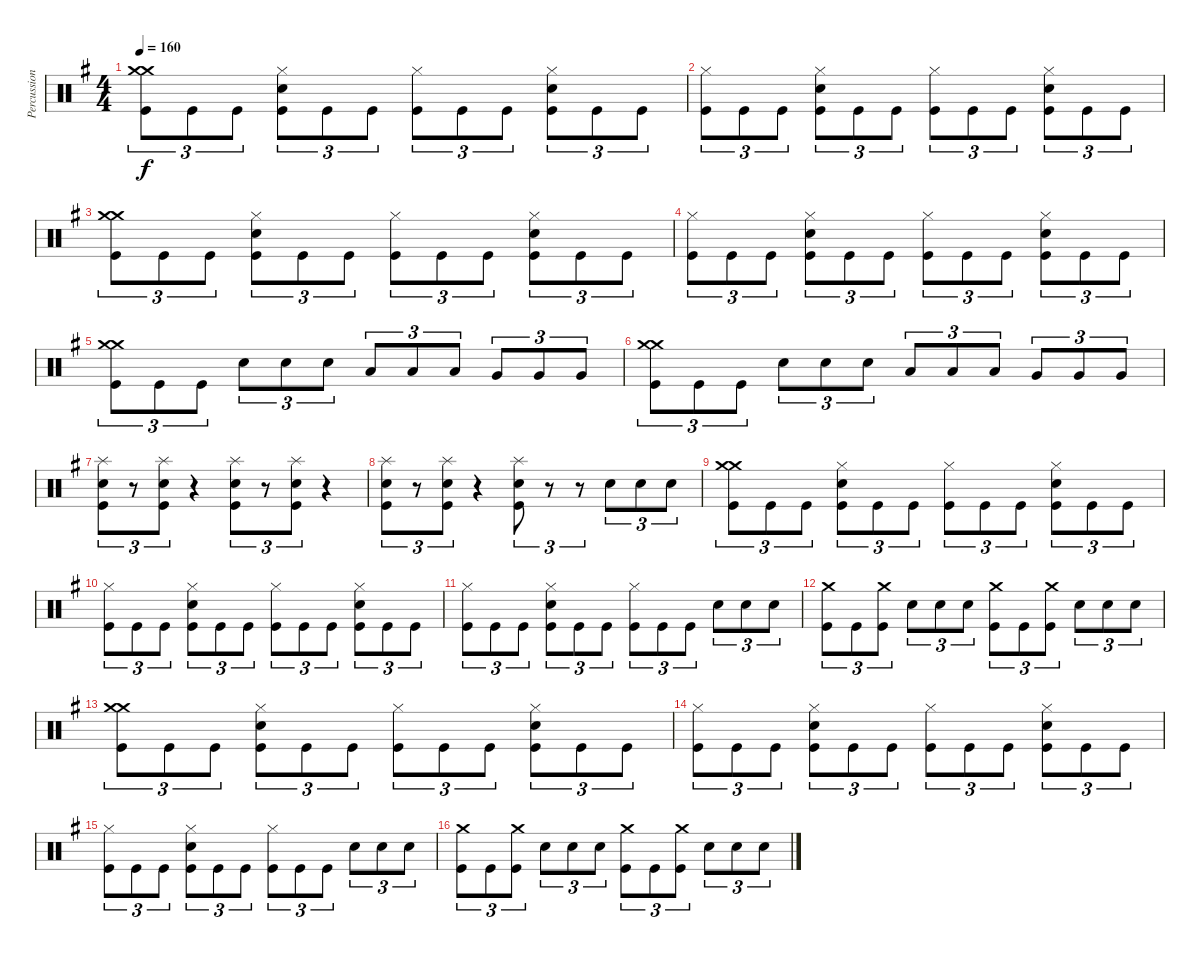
\track ("Percussions" "Percussion") {instrument percussion}
\staff {score}
\articulation defaults
\ts (4 4)
\tempo 160
\clef neutral
\ks g
("Kick (hit)" "Crash medium (hit)" "Crash medium (hit)").8{tu (3 2) dy f} "Kick (hit)".8{tu (3 2)} "Kick (hit)".8{tu (3 2)} ("Kick (hit)" "Electric Snare (hit)" "Hi-Hat (closed)").8{tu (3 2)} "Kick (hit)".8{tu (3 2)} "Kick (hit)".8{tu (3 2)} ("Kick (hit)" "Hi-Hat (closed)").8{tu (3 2)} "Kick (hit)".8{tu (3 2)} "Kick (hit)".8{tu (3 2)} ("Kick (hit)" "Electric Snare (hit)" "Hi-Hat (closed)").8{tu (3 2)} "Kick (hit)".8{tu (3 2)} "Kick (hit)".8{tu (3 2)} |
("Kick (hit)" "Hi-Hat (closed)").8{tu (3 2)} "Kick (hit)".8{tu (3 2)} "Kick (hit)".8{tu (3 2)} ("Kick (hit)" "Electric Snare (hit)" "Hi-Hat (closed)").8{tu (3 2)} "Kick (hit)".8{tu (3 2)} "Kick (hit)".8{tu (3 2)} ("Kick (hit)" "Hi-Hat (closed)").8{tu (3 2)} "Kick (hit)".8{tu (3 2)} "Kick (hit)".8{tu (3 2)} ("Kick (hit)" "Electric Snare (hit)" "Hi-Hat (closed)").8{tu (3 2)} "Kick (hit)".8{tu (3 2)} "Kick (hit)".8{tu (3 2)} |
("Kick (hit)" "Crash medium (hit)" "Crash medium (hit)").8{tu (3 2)} "Kick (hit)".8{tu (3 2)} "Kick (hit)".8{tu (3 2)} ("Kick (hit)" "Electric Snare (hit)" "Hi-Hat (closed)").8{tu (3 2)} "Kick (hit)".8{tu (3 2)} "Kick (hit)".8{tu (3 2)} ("Kick (hit)" "Hi-Hat (closed)").8{tu (3 2)} "Kick (hit)".8{tu (3 2)} "Kick (hit)".8{tu (3 2)} ("Kick (hit)" "Electric Snare (hit)" "Hi-Hat (closed)").8{tu (3 2)} "Kick (hit)".8{tu (3 2)} "Kick (hit)".8{tu (3 2)} |
("Kick (hit)" "Hi-Hat (closed)").8{tu (3 2)} "Kick (hit)".8{tu (3 2)} "Kick (hit)".8{tu (3 2)} ("Kick (hit)" "Electric Snare (hit)" "Hi-Hat (closed)").8{tu (3 2)} "Kick (hit)".8{tu (3 2)} "Kick (hit)".8{tu (3 2)} ("Kick (hit)" "Hi-Hat (closed)").8{tu (3 2)} "Kick (hit)".8{tu (3 2)} "Kick (hit)".8{tu (3 2)} ("Kick (hit)" "Electric Snare (hit)" "Hi-Hat (closed)").8{tu (3 2)} "Kick (hit)".8{tu (3 2)} "Kick (hit)".8{tu (3 2)} |
("Kick (hit)" "Crash medium (hit)" "Crash medium (hit)").8{tu (3 2)} "Kick (hit)".8{tu (3 2)} "Kick (hit)".8{tu (3 2)} "Electric Snare (hit)".8{tu (3 2)} "Electric Snare (hit)".8{tu (3 2)} "Electric Snare (hit)".8{tu (3 2)} "Low Tom (hit)".8{tu (3 2)} "Low Tom (hit)".8{tu (3 2)} "Low Tom (hit)".8{tu (3 2)} "Very Low Tom (hit)".8{tu (3 2)} "Very Low Tom (hit)".8{tu (3 2)} "Very Low Tom (hit)".8{tu (3 2)} |
("Kick (hit)" "Crash medium (hit)" "Crash medium (hit)").8{tu (3 2)} "Kick (hit)".8{tu (3 2)} "Kick (hit)".8{tu (3 2)} "Electric Snare (hit)".8{tu (3 2)} "Electric Snare (hit)".8{tu (3 2)} "Electric Snare (hit)".8{tu (3 2)} "Low Tom (hit)".8{tu (3 2)} "Low Tom (hit)".8{tu (3 2)} "Low Tom (hit)".8{tu (3 2)} "Very Low Tom (hit)".8{tu (3 2)} "Very Low Tom (hit)".8{tu (3 2)} "Very Low Tom (hit)".8{tu (3 2)} |
("Kick (hit)" "Electric Snare (hit)" "Splash (hit)").8{tu (3 2)} r.8{tu (3 2)} ("Kick (hit)" "Electric Snare (hit)" "Splash (hit)").8{tu (3 2)} r.4 ("Kick (hit)" "Electric Snare (hit)" "Splash (hit)").8{tu (3 2)} r.8{tu (3 2)} ("Kick (hit)" "Electric Snare (hit)" "Splash (hit)").8{tu (3 2)} r.4 |
("Kick (hit)" "Electric Snare (hit)" "Splash (hit)").8{tu (3 2)} r.8{tu (3 2)} ("Kick (hit)" "Electric Snare (hit)" "Splash (hit)").8{tu (3 2)} r.4 ("Kick (hit)" "Electric Snare (hit)" "Splash (hit)").8{tu (3 2)} r.8{tu (3 2)} r.8{tu (3 2)} "Electric Snare (hit)".8{tu (3 2)} "Electric Snare (hit)".8{tu (3 2)} "Electric Snare (hit)".8{tu (3 2)} |
("Kick (hit)" "Crash medium (hit)" "Crash medium (hit)").8{tu (3 2)} "Kick (hit)".8{tu (3 2)} "Kick (hit)".8{tu (3 2)} ("Kick (hit)" "Electric Snare (hit)" "Hi-Hat (closed)").8{tu (3 2)} "Kick (hit)".8{tu (3 2)} "Kick (hit)".8{tu (3 2)} ("Kick (hit)" "Hi-Hat (closed)").8{tu (3 2)} "Kick (hit)".8{tu (3 2)} "Kick (hit)".8{tu (3 2)} ("Kick (hit)" "Electric Snare (hit)" "Hi-Hat (closed)").8{tu (3 2)} "Kick (hit)".8{tu (3 2)} "Kick (hit)".8{tu (3 2)} |
("Kick (hit)" "Hi-Hat (closed)").8{tu (3 2)} "Kick (hit)".8{tu (3 2)} "Kick (hit)".8{tu (3 2)} ("Kick (hit)" "Electric Snare (hit)" "Hi-Hat (closed)").8{tu (3 2)} "Kick (hit)".8{tu (3 2)} "Kick (hit)".8{tu (3 2)} ("Kick (hit)" "Hi-Hat (closed)").8{tu (3 2)} "Kick (hit)".8{tu (3 2)} "Kick (hit)".8{tu (3 2)} ("Kick (hit)" "Electric Snare (hit)" "Hi-Hat (closed)").8{tu (3 2)} "Kick (hit)".8{tu (3 2)} "Kick (hit)".8{tu (3 2)} |
("Kick (hit)" "Hi-Hat (closed)").8{tu (3 2)} "Kick (hit)".8{tu (3 2)} "Kick (hit)".8{tu (3 2)} ("Kick (hit)" "Electric Snare (hit)" "Hi-Hat (closed)").8{tu (3 2)} "Kick (hit)".8{tu (3 2)} "Kick (hit)".8{tu (3 2)} ("Kick (hit)" "Hi-Hat (closed)").8{tu (3 2)} "Kick (hit)".8{tu (3 2)} "Kick (hit)".8{tu (3 2)} "Electric Snare (hit)".8{tu (3 2)} "Electric Snare (hit)".8{tu (3 2)} "Electric Snare (hit)".8{tu (3 2)} |
("Kick (hit)" "Crash medium (hit)").8{tu (3 2)} "Kick (hit)".8{tu (3 2)} ("Kick (hit)" "Crash medium (hit)").8{tu (3 2)} "Electric Snare (hit)".8{tu (3 2)} "Electric Snare (hit)".8{tu (3 2)} "Electric Snare (hit)".8{tu (3 2)} ("Kick (hit)" "Crash medium (hit)").8{tu (3 2)} "Kick (hit)".8{tu (3 2)} ("Kick (hit)" "Crash medium (hit)").8{tu (3 2)} "Electric Snare (hit)".8{tu (3 2)} "Electric Snare (hit)".8{tu (3 2)} "Electric Snare (hit)".8{tu (3 2)} |
("Kick (hit)" "Crash medium (hit)" "Crash medium (hit)").8{tu (3 2)} "Kick (hit)".8{tu (3 2)} "Kick (hit)".8{tu (3 2)} ("Kick (hit)" "Electric Snare (hit)" "Hi-Hat (closed)").8{tu (3 2)} "Kick (hit)".8{tu (3 2)} "Kick (hit)".8{tu (3 2)} ("Kick (hit)" "Hi-Hat (closed)").8{tu (3 2)} "Kick (hit)".8{tu (3 2)} "Kick (hit)".8{tu (3 2)} ("Kick (hit)" "Electric Snare (hit)" "Hi-Hat (closed)").8{tu (3 2)} "Kick (hit)".8{tu (3 2)} "Kick (hit)".8{tu (3 2)} |
("Kick (hit)" "Hi-Hat (closed)").8{tu (3 2)} "Kick (hit)".8{tu (3 2)} "Kick (hit)".8{tu (3 2)} ("Kick (hit)" "Electric Snare (hit)" "Hi-Hat (closed)").8{tu (3 2)} "Kick (hit)".8{tu (3 2)} "Kick (hit)".8{tu (3 2)} ("Kick (hit)" "Hi-Hat (closed)").8{tu (3 2)} "Kick (hit)".8{tu (3 2)} "Kick (hit)".8{tu (3 2)} ("Kick (hit)" "Electric Snare (hit)" "Hi-Hat (closed)").8{tu (3 2)} "Kick (hit)".8{tu (3 2)} "Kick (hit)".8{tu (3 2)} |
("Kick (hit)" "Hi-Hat (closed)").8{tu (3 2)} "Kick (hit)".8{tu (3 2)} "Kick (hit)".8{tu (3 2)} ("Kick (hit)" "Electric Snare (hit)" "Hi-Hat (closed)").8{tu (3 2)} "Kick (hit)".8{tu (3 2)} "Kick (hit)".8{tu (3 2)} ("Kick (hit)" "Hi-Hat (closed)").8{tu (3 2)} "Kick (hit)".8{tu (3 2)} "Kick (hit)".8{tu (3 2)} "Electric Snare (hit)".8{tu (3 2)} "Electric Snare (hit)".8{tu (3 2)} "Electric Snare (hit)".8{tu (3 2)} |
("Kick (hit)" "Crash medium (hit)").8{tu (3 2)} "Kick (hit)".8{tu (3 2)} ("Kick (hit)" "Crash medium (hit)").8{tu (3 2)} "Electric Snare (hit)".8{tu (3 2)} "Electric Snare (hit)".8{tu (3 2)} "Electric Snare (hit)".8{tu (3 2)} ("Kick (hit)" "Crash medium (hit)").8{tu (3 2)} "Kick (hit)".8{tu (3 2)} ("Kick (hit)" "Crash medium (hit)").8{tu (3 2)} "Electric Snare (hit)".8{tu (3 2)} "Electric Snare (hit)".8{tu (3 2)} "Electric Snare (hit)".8{tu (3 2)}
